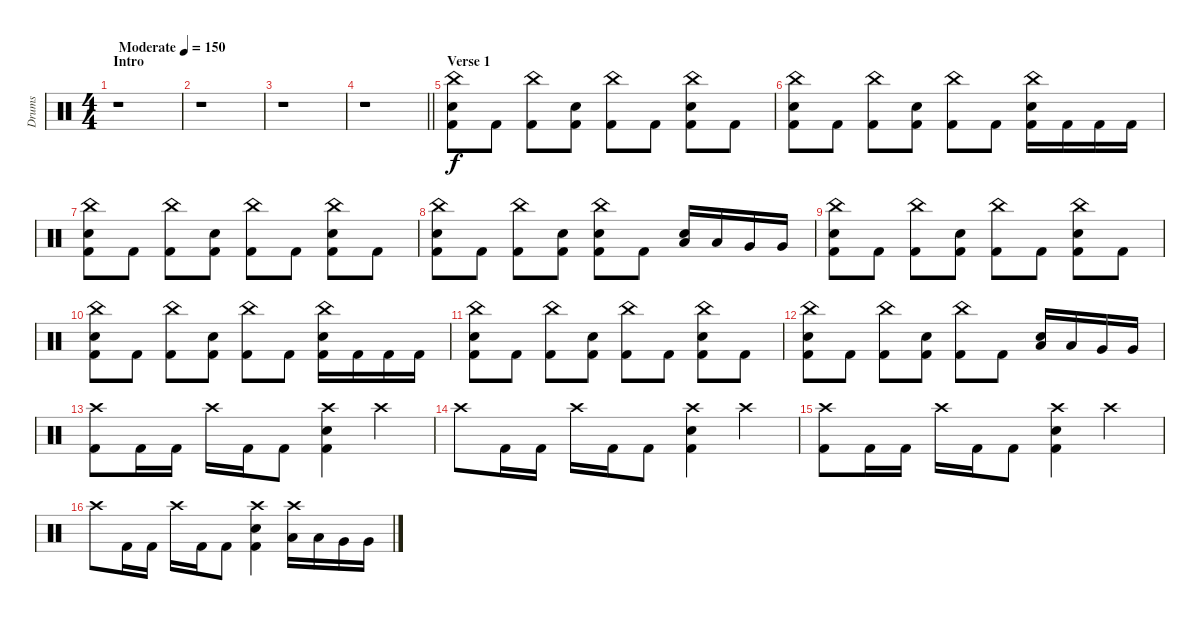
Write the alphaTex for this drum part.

\track ("Drums" "Drums") {instrument percussion}
\staff {score}
\articulation defaults
\ts (4 4)
\section ("" "Intro")
\tempo (150 "Moderate")
\clef neutral
\ks c
r.1{dy f} |
r.1 |
r.1 |
\barLineRight lightlight
r.1 |
\section ("" "Verse 1")
("China (hit)" "Electric Snare (hit)" "Kick (hit) 2").8 "Kick (hit) 2".8 ("China (hit)" "Kick (hit) 2").8 ("Electric Snare (hit)" "Kick (hit) 2").8 ("China (hit)" "Kick (hit) 2").8 "Kick (hit) 2".8 ("China (hit)" "Electric Snare (hit)" "Kick (hit) 2").8 "Kick (hit) 2".8 |
("China (hit)" "Electric Snare (hit)" "Kick (hit) 2").8 "Kick (hit) 2".8 ("China (hit)" "Kick (hit) 2").8 ("Electric Snare (hit)" "Kick (hit) 2").8 ("China (hit)" "Kick (hit) 2").8 "Kick (hit) 2".8 ("China (hit)" "Electric Snare (hit)" "Kick (hit) 2").16 "Kick (hit) 2".16 "Kick (hit) 2".16 "Kick (hit) 2".16 |
("China (hit)" "Electric Snare (hit)" "Kick (hit) 2").8 "Kick (hit) 2".8 ("China (hit)" "Kick (hit) 2").8 ("Electric Snare (hit)" "Kick (hit) 2").8 ("China (hit)" "Kick (hit) 2").8 "Kick (hit) 2".8 ("China (hit)" "Electric Snare (hit)" "Kick (hit) 2").8 "Kick (hit) 2".8 |
("China (hit)" "Electric Snare (hit)" "Kick (hit) 2").8 "Kick (hit) 2".8 ("China (hit)" "Kick (hit) 2").8 ("Electric Snare (hit)" "Kick (hit) 2").8 ("China (hit)" "Electric Snare (hit)" "Kick (hit) 2").8 "Kick (hit) 2".8 ("Low Tom (hit)" "Electric Snare (hit)").16 "Low Tom (hit)".16 "Very Low Tom (hit)".16 "Very Low Tom (hit)".16 |
("China (hit)" "Electric Snare (hit)" "Kick (hit) 2").8 "Kick (hit) 2".8 ("China (hit)" "Kick (hit) 2").8 ("Electric Snare (hit)" "Kick (hit) 2").8 ("China (hit)" "Kick (hit) 2").8 "Kick (hit) 2".8 ("China (hit)" "Electric Snare (hit)" "Kick (hit) 2").8 "Kick (hit) 2".8 |
("China (hit)" "Electric Snare (hit)" "Kick (hit) 2").8 "Kick (hit) 2".8 ("China (hit)" "Kick (hit) 2").8 ("Electric Snare (hit)" "Kick (hit) 2").8 ("China (hit)" "Kick (hit) 2").8 "Kick (hit) 2".8 ("China (hit)" "Electric Snare (hit)" "Kick (hit) 2").16 "Kick (hit) 2".16 "Kick (hit) 2".16 "Kick (hit) 2".16 |
("China (hit)" "Electric Snare (hit)" "Kick (hit) 2").8 "Kick (hit) 2".8 ("China (hit)" "Kick (hit) 2").8 ("Electric Snare (hit)" "Kick (hit) 2").8 ("China (hit)" "Kick (hit) 2").8 "Kick (hit) 2".8 ("China (hit)" "Electric Snare (hit)" "Kick (hit) 2").8 "Kick (hit) 2".8 |
("China (hit)" "Electric Snare (hit)" "Kick (hit) 2").8 "Kick (hit) 2".8 ("China (hit)" "Kick (hit) 2").8 ("Electric Snare (hit)" "Kick (hit) 2").8 ("China (hit)" "Kick (hit) 2").8 "Kick (hit) 2".8 ("Low Tom (hit)" "Electric Snare (hit)").16 "Low Tom (hit)".16 "Very Low Tom (hit)".16 "Very Low Tom (hit)".16 |
("Crash high (hit)" "Kick (hit) 2").8 "Kick (hit) 2".16 "Kick (hit) 2".16 "Crash high (hit)".16 "Kick (hit) 2".16 "Kick (hit) 2".8 ("Crash high (hit)" "Electric Snare (hit)" "Kick (hit) 2").4 "Crash high (hit)".4 |
"Crash high (hit)".8 "Kick (hit) 2".16 "Kick (hit) 2".16 "Crash high (hit)".16 "Kick (hit) 2".16 "Kick (hit) 2".8 ("Crash high (hit)" "Electric Snare (hit)" "Kick (hit) 2").4 "Crash high (hit)".4 |
("Crash high (hit)" "Kick (hit) 2").8 "Kick (hit) 2".16 "Kick (hit) 2".16 "Crash high (hit)".16 "Kick (hit) 2".16 "Kick (hit) 2".8 ("Crash high (hit)" "Electric Snare (hit)" "Kick (hit) 2").4 "Crash high (hit)".4 |
"Crash high (hit)".8 "Kick (hit) 2".16 "Kick (hit) 2".16 "Crash high (hit)".16 "Kick (hit) 2".16 "Kick (hit) 2".8 ("Crash high (hit)" "Electric Snare (hit)" "Kick (hit) 2").4 ("Crash high (hit)" "Low Tom (hit)").16 "Low Tom (hit)".16 "Very Low Tom (hit)".16 "Very Low Tom (hit)".16
